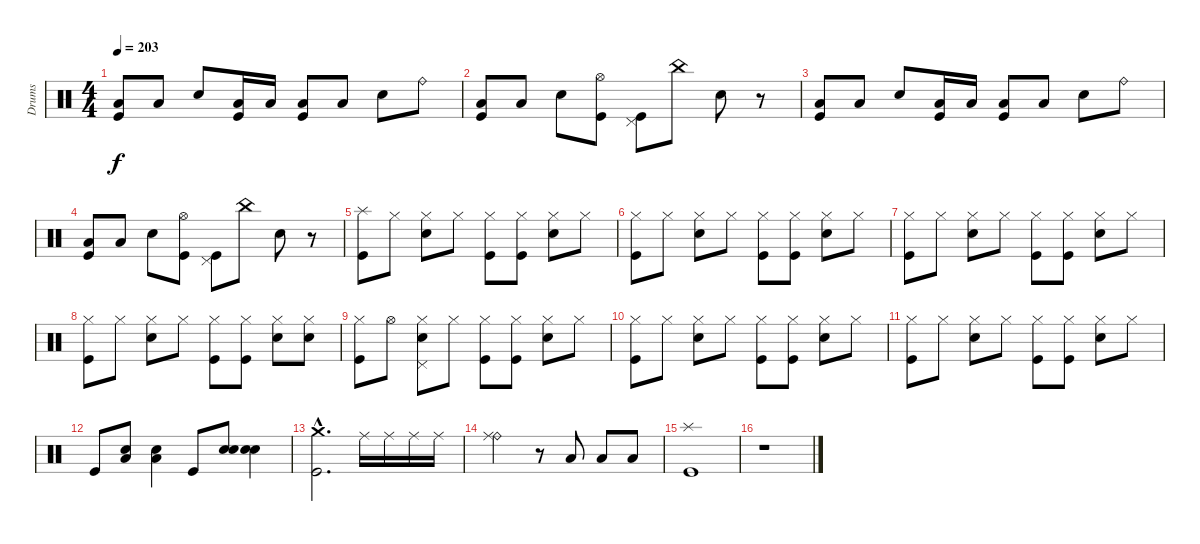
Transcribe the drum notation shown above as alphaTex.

\track ("Drums" "Drums") {instrument percussion}
\staff {score}
\articulation defaults
\ts (4 4)
\tempo 203
\clef neutral
\ks c
("Low Floor Tom (hit)" "Kick (hit)").8{dy f} "Low Floor Tom (hit)".8 "Snare (hit) 2".8 ("Low Tom (hit)" "Kick (hit)").16 "Low Tom (hit)".16 ("Low Floor Tom (hit)" "Kick (hit)").8 "Low Floor Tom (hit)".8 "Snare (hit) 2".8 "Ride (bell)".8 |
("Low Floor Tom (hit)" "Kick (hit)").8 "Low Floor Tom (hit)".8 "Snare (hit) 2".8 ("Hi-Hat (open)" "Kick (hit)").8 ("Pedal Hi-Hat (hit)" "Kick (hit)").8 "China (hit)".8 "Snare (hit) 2".8 r.8 |
("Low Floor Tom (hit)" "Kick (hit)").8 "Low Floor Tom (hit)".8 "Snare (hit) 2".8 ("Low Tom (hit)" "Kick (hit)").16 "Low Tom (hit)".16 ("Low Floor Tom (hit)" "Kick (hit)").8 "Low Floor Tom (hit)".8 "Snare (hit) 2".8 "Ride (bell)".8 |
("Low Floor Tom (hit)" "Kick (hit)").8 "Low Floor Tom (hit)".8 "Snare (hit) 2".8 ("Hi-Hat (open)" "Kick (hit)").8 ("Pedal Hi-Hat (hit)" "Kick (hit)").8 "China (hit)".8 "Snare (hit) 2".8 r.8 |
("Splash (hit)" "Kick (hit)").8 "Hi-Hat (closed)".8 ("Hi-Hat (closed)" "Snare (hit) 2").8 "Hi-Hat (closed)".8 ("Hi-Hat (closed)" "Kick (hit)").8 ("Hi-Hat (closed)" "Kick (hit)").8 ("Hi-Hat (closed)" "Snare (hit) 2").8 "Hi-Hat (closed)".8 |
("Hi-Hat (closed)" "Kick (hit)").8 "Hi-Hat (closed)".8 ("Hi-Hat (closed)" "Snare (hit) 2").8 "Hi-Hat (closed)".8 ("Hi-Hat (closed)" "Kick (hit)").8 ("Hi-Hat (closed)" "Kick (hit)").8 ("Hi-Hat (closed)" "Snare (hit) 2").8 "Hi-Hat (closed)".8 |
("Hi-Hat (closed)" "Kick (hit)").8 "Hi-Hat (closed)".8 ("Hi-Hat (closed)" "Snare (hit) 2").8 "Hi-Hat (closed)".8 ("Hi-Hat (closed)" "Kick (hit)").8 ("Hi-Hat (closed)" "Kick (hit)").8 ("Hi-Hat (closed)" "Snare (hit) 2").8 "Hi-Hat (closed)".8 |
("Hi-Hat (closed)" "Kick (hit)").8 "Hi-Hat (closed)".8 ("Hi-Hat (closed)" "Snare (hit) 2").8 "Hi-Hat (closed)".8 ("Hi-Hat (closed)" "Kick (hit)").8 ("Hi-Hat (closed)" "Kick (hit)").8 ("Hi-Hat (closed)" "Snare (hit) 2").8 ("Hi-Hat (closed)" "Snare (hit) 2").8 |
("Hi-Hat (closed)" "Kick (hit)").8 "Hi-Hat (open)".8 ("Hi-Hat (closed)" "Pedal Hi-Hat (hit)" "Snare (hit) 2").8 "Hi-Hat (closed)".8 ("Hi-Hat (closed)" "Kick (hit)").8 ("Hi-Hat (closed)" "Kick (hit)").8 ("Hi-Hat (closed)" "Snare (hit) 2").8 "Hi-Hat (closed)".8 |
("Hi-Hat (closed)" "Kick (hit)").8 "Hi-Hat (closed)".8 ("Hi-Hat (closed)" "Snare (hit) 2").8 "Hi-Hat (closed)".8 ("Hi-Hat (closed)" "Kick (hit)").8 ("Hi-Hat (closed)" "Kick (hit)").8 ("Hi-Hat (closed)" "Snare (hit) 2").8 "Hi-Hat (closed)".8 |
("Hi-Hat (closed)" "Kick (hit)").8 "Hi-Hat (closed)".8 ("Hi-Hat (closed)" "Snare (hit) 2").8 "Hi-Hat (closed)".8 ("Hi-Hat (closed)" "Kick (hit)").8 ("Hi-Hat (closed)" "Kick (hit)").8 ("Hi-Hat (closed)" "Snare (hit) 2").8 "Hi-Hat (closed)".8 |
"Kick (hit)".8 ("Low Tom (hit)" "Snare (hit) 2").8 ("Low Tom (hit)" "Snare (hit) 2").4 "Kick (hit)".8 ("Snare (hit) 2" "Snare (hit) 2").8 ("Snare (hit) 2" "Snare (hit) 2").4 |
("Crash medium (hit)"{hac} "Kick (hit)"{hac}).2{d} "Ride (middle)".16 "Ride (middle)".16 "Ride (middle)".16 "Ride (middle)".16 |
("Ride (bell)" "Ride (middle)").2 r.8 "Low Tom (hit)".8 "Low Floor Tom (hit)".8 "Low Floor Tom (hit)".8 |
("Splash (hit)" "Kick (hit)").1 |
r.1
